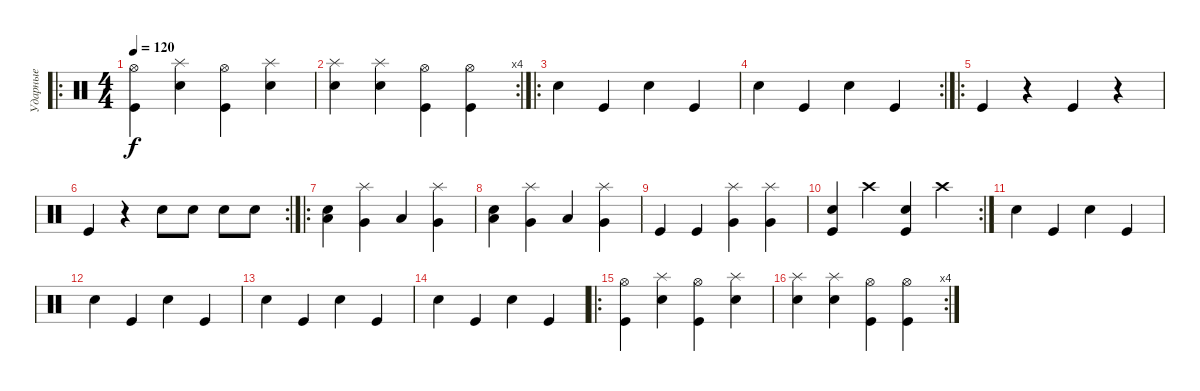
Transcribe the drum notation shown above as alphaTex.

\track ("Ударные" "Ударные") {instrument percussion}
\staff {score}
\articulation defaults
\ro
\ts (4 4)
\tempo 120
\clef neutral
\ks c
("Kick (hit)" "Hi-Hat (open)").4{dy f} ("Snare (hit) 2" "Splash (hit)").4 ("Kick (hit)" "Hi-Hat (open)").4 ("Snare (hit) 2" "Splash (hit)").4 |
\rc 4
("Snare (hit) 2" "Splash (hit)").4 ("Snare (hit) 2" "Splash (hit)").4 ("Kick (hit)" "Hi-Hat (open)").4 ("Kick (hit)" "Hi-Hat (open)").4 |
\ro "Snare (hit) 2".4 "Kick (hit)".4 "Snare (hit) 2".4 "Kick (hit)".4
|
\rc 2 "Snare (hit) 2".4 "Kick (hit)".4 "Snare (hit) 2".4 "Kick (hit)".4
|
\ro "Kick (hit)".4
r.4 "Kick (hit)".4 r.4 |
\rc 2 "Kick (hit)".4
r.4 "Electric Snare (hit)".8 "Electric Snare (hit)".8 "Electric Snare (hit)".8 "Electric Snare (hit)".8 |
\ro
("Low Tom (hit)" "Electric Snare (hit)").4 ("Very Low Tom (hit)" "Splash (hit)").4 "Low Tom (hit)".4 ("Very Low Tom (hit)" "Splash (hit)").4 |
("Low Tom (hit)" "Electric Snare (hit)").4 ("Very Low Tom (hit)" "Splash (hit)").4 "Low Tom (hit)".4 ("Very Low Tom (hit)" "Splash (hit)").4 |
"Kick (hit)".4 "Kick (hit)".4 ("Very Low Tom (hit)" "Splash (hit)").4 ("Splash (hit)" "Very Low Tom (hit)").4 |
\rc 2
("Kick (hit)" "Electric Snare (hit)").4 "Crash high (hit)".4 ("Kick (hit)" "Electric Snare (hit)").4 "Crash high (hit)".4 |
"Snare (hit) 2".4 "Kick (hit)".4 "Snare (hit) 2".4 "Kick (hit)".4 |
"Snare (hit) 2".4 "Kick (hit)".4 "Snare (hit) 2".4 "Kick (hit)".4 |
"Snare (hit) 2".4 "Kick (hit)".4 "Snare (hit) 2".4 "Kick (hit)".4 |
"Snare (hit) 2".4 "Kick (hit)".4 "Snare (hit) 2".4 "Kick (hit)".4 |
\ro
("Kick (hit)" "Hi-Hat (open)").4 ("Snare (hit) 2" "Splash (hit)").4 ("Kick (hit)" "Hi-Hat (open)").4 ("Snare (hit) 2" "Splash (hit)").4 |
\rc 4
("Snare (hit) 2" "Splash (hit)").4 ("Snare (hit) 2" "Splash (hit)").4 ("Kick (hit)" "Hi-Hat (open)").4 ("Kick (hit)" "Hi-Hat (open)").4
